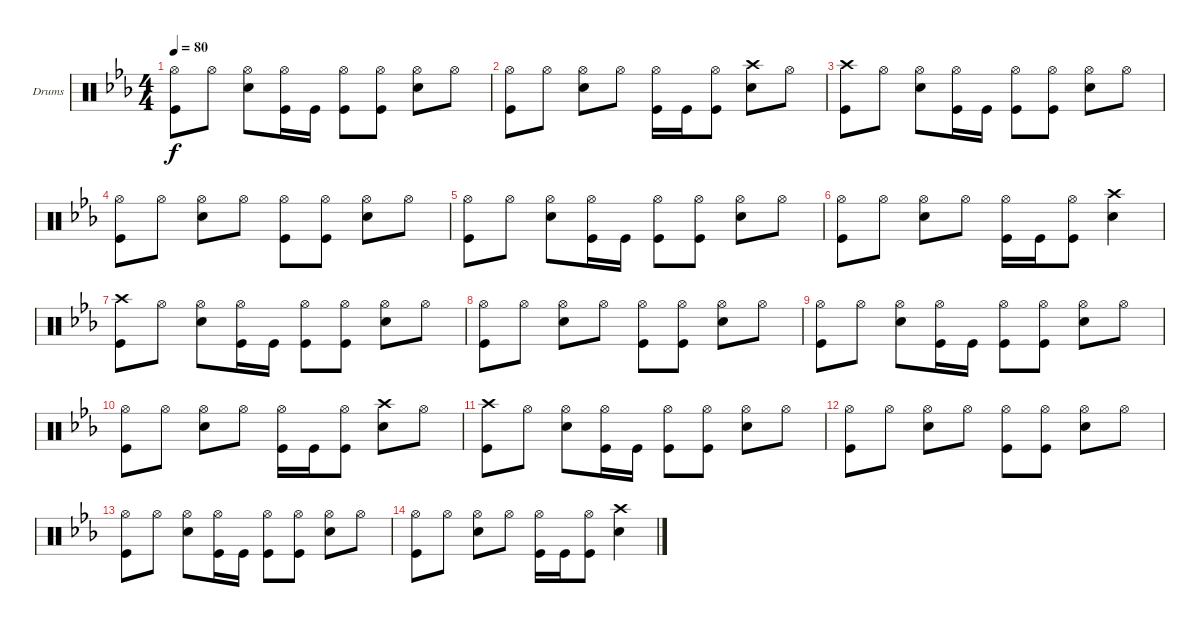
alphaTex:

\defaultSystemsLayout 4
\bracketExtendMode groupsimilarinstruments
\firstSystemTrackNameOrientation horizontal
\otherSystemsTrackNameOrientation horizontal
\track ("Drumkit" "Drums") {instrument percussion}
\staff {score}
\articulation defaults
\ts (4 4)
\tempo 80
\clef neutral
\ks cminor
("Kick (hit)" "Hi-Hat (open)").8{dy f} "Hi-Hat (open)".8 ("Hi-Hat (open)" "Snare (hit) 2").8 ("Hi-Hat (open)" "Kick (hit)").16 "Kick (hit)".16 ("Hi-Hat (open)" "Kick (hit)").8 ("Hi-Hat (open)" "Kick (hit)").8 ("Hi-Hat (open)" "Snare (hit) 2").8 "Hi-Hat (open)".8 |
("Kick (hit)" "Hi-Hat (open)").8 "Hi-Hat (open)".8 ("Hi-Hat (open)" "Snare (hit) 2").8 "Hi-Hat (open)".8 ("Kick (hit)" "Hi-Hat (open)").16 "Kick (hit)".16 ("Hi-Hat (open)" "Kick (hit)").8 ("Snare (hit) 2" "Crash high (hit)").8 "Hi-Hat (open)".8 |
("Crash high (hit)" "Kick (hit)").8 "Hi-Hat (open)".8 ("Hi-Hat (open)" "Snare (hit) 2").8 ("Hi-Hat (open)" "Kick (hit)").16 "Kick (hit)".16 ("Hi-Hat (open)" "Kick (hit)").8 ("Hi-Hat (open)" "Kick (hit)").8 ("Hi-Hat (open)" "Snare (hit) 2").8 "Hi-Hat (open)".8 |
("Kick (hit)" "Hi-Hat (open)").8 "Hi-Hat (open)".8 ("Hi-Hat (open)" "Snare (hit) 2").8 "Hi-Hat (open)".8 ("Hi-Hat (open)" "Kick (hit)").8 ("Hi-Hat (open)" "Kick (hit)").8 ("Hi-Hat (open)" "Snare (hit) 2").8 "Hi-Hat (open)".8 |
("Kick (hit)" "Hi-Hat (open)").8 "Hi-Hat (open)".8 ("Hi-Hat (open)" "Snare (hit) 2").8 ("Hi-Hat (open)" "Kick (hit)").16 "Kick (hit)".16 ("Hi-Hat (open)" "Kick (hit)").8 ("Hi-Hat (open)" "Kick (hit)").8 ("Hi-Hat (open)" "Snare (hit) 2").8 "Hi-Hat (open)".8 |
("Kick (hit)" "Hi-Hat (open)").8 "Hi-Hat (open)".8 ("Hi-Hat (open)" "Snare (hit) 2").8 "Hi-Hat (open)".8 ("Kick (hit)" "Hi-Hat (open)").16 "Kick (hit)".16 ("Hi-Hat (open)" "Kick (hit)").8 ("Snare (hit) 2" "Crash high (hit)").4 |
("Crash high (hit)" "Kick (hit)").8 "Hi-Hat (open)".8 ("Hi-Hat (open)" "Snare (hit) 2").8 ("Hi-Hat (open)" "Kick (hit)").16 "Kick (hit)".16 ("Hi-Hat (open)" "Kick (hit)").8 ("Hi-Hat (open)" "Kick (hit)").8 ("Hi-Hat (open)" "Snare (hit) 2").8 "Hi-Hat (open)".8 |
("Kick (hit)" "Hi-Hat (open)").8 "Hi-Hat (open)".8 ("Hi-Hat (open)" "Snare (hit) 2").8 "Hi-Hat (open)".8 ("Hi-Hat (open)" "Kick (hit)").8 ("Hi-Hat (open)" "Kick (hit)").8 ("Hi-Hat (open)" "Snare (hit) 2").8 "Hi-Hat (open)".8 |
("Kick (hit)" "Hi-Hat (open)").8 "Hi-Hat (open)".8 ("Hi-Hat (open)" "Snare (hit) 2").8 ("Hi-Hat (open)" "Kick (hit)").16 "Kick (hit)".16 ("Hi-Hat (open)" "Kick (hit)").8 ("Hi-Hat (open)" "Kick (hit)").8 ("Hi-Hat (open)" "Snare (hit) 2").8 "Hi-Hat (open)".8 |
("Kick (hit)" "Hi-Hat (open)").8 "Hi-Hat (open)".8 ("Hi-Hat (open)" "Snare (hit) 2").8 "Hi-Hat (open)".8 ("Kick (hit)" "Hi-Hat (open)").16 "Kick (hit)".16 ("Hi-Hat (open)" "Kick (hit)").8 ("Snare (hit) 2" "Crash high (hit)").8 "Hi-Hat (open)".8 |
("Crash high (hit)" "Kick (hit)").8 "Hi-Hat (open)".8 ("Hi-Hat (open)" "Snare (hit) 2").8 ("Hi-Hat (open)" "Kick (hit)").16 "Kick (hit)".16 ("Hi-Hat (open)" "Kick (hit)").8 ("Hi-Hat (open)" "Kick (hit)").8 ("Hi-Hat (open)" "Snare (hit) 2").8 "Hi-Hat (open)".8 |
("Kick (hit)" "Hi-Hat (open)").8 "Hi-Hat (open)".8 ("Hi-Hat (open)" "Snare (hit) 2").8 "Hi-Hat (open)".8 ("Hi-Hat (open)" "Kick (hit)").8 ("Hi-Hat (open)" "Kick (hit)").8 ("Hi-Hat (open)" "Snare (hit) 2").8 "Hi-Hat (open)".8 |
("Kick (hit)" "Hi-Hat (open)").8 "Hi-Hat (open)".8 ("Hi-Hat (open)" "Snare (hit) 2").8 ("Hi-Hat (open)" "Kick (hit)").16 "Kick (hit)".16 ("Hi-Hat (open)" "Kick (hit)").8 ("Hi-Hat (open)" "Kick (hit)").8 ("Hi-Hat (open)" "Snare (hit) 2").8 "Hi-Hat (open)".8 |
("Kick (hit)" "Hi-Hat (open)").8 "Hi-Hat (open)".8 ("Hi-Hat (open)" "Snare (hit) 2").8 "Hi-Hat (open)".8 ("Kick (hit)" "Hi-Hat (open)").16 "Kick (hit)".16 ("Hi-Hat (open)" "Kick (hit)").8 ("Snare (hit) 2" "Crash high (hit)").4
